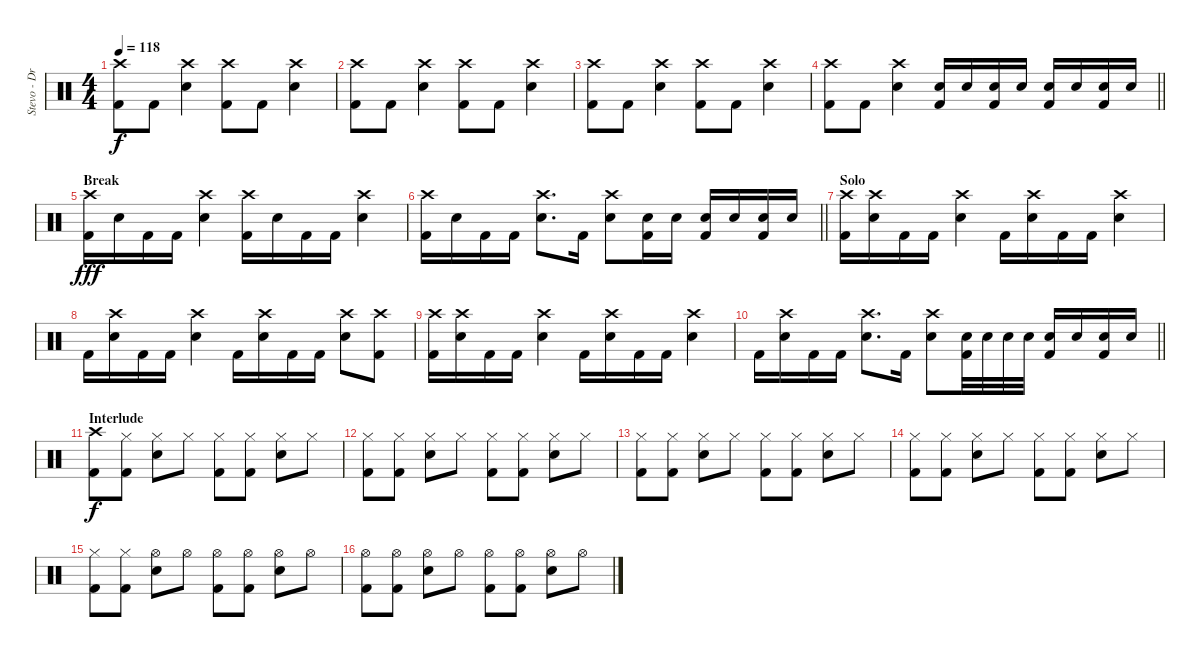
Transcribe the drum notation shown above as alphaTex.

\track ("Stevo - Drums" "Stevo - Dr") {instrument percussion}
\staff {score}
\articulation defaults
\ts (4 4)
\tempo 118
\clef neutral
\ks c
("Crash high (hit)" "Kick (hit) 2").8{dy f} "Kick (hit) 2".8 ("Crash high (hit)" "Snare (hit) 2").4 ("Crash high (hit)" "Kick (hit) 2").8 "Kick (hit) 2".8 ("Crash high (hit)" "Snare (hit) 2").4 |
("Crash high (hit)" "Kick (hit) 2").8 "Kick (hit) 2".8 ("Crash high (hit)" "Snare (hit) 2").4 ("Crash high (hit)" "Kick (hit) 2").8 "Kick (hit) 2".8 ("Crash high (hit)" "Snare (hit) 2").4 |
("Crash high (hit)" "Kick (hit) 2").8 "Kick (hit) 2".8 ("Crash high (hit)" "Snare (hit) 2").4 ("Crash high (hit)" "Kick (hit) 2").8 "Kick (hit) 2".8 ("Crash high (hit)" "Snare (hit) 2").4 |
\barLineRight lightlight
("Crash high (hit)" "Kick (hit) 2").8 "Kick (hit) 2".8 ("Crash high (hit)" "Snare (hit) 2").4 ("Snare (hit) 2" "Kick (hit) 2").16 "Snare (hit) 2".16 ("Snare (hit) 2" "Kick (hit) 2").16 "Snare (hit) 2".16 ("Snare (hit) 2" "Kick (hit) 2").16 "Snare (hit) 2".16 ("Snare (hit) 2" "Kick (hit) 2").16 "Snare (hit) 2".16 |
\section ("" "Break")
("Crash high (hit)" "Kick (hit) 2").16{dy fff} "Snare (hit) 2".16 "Kick (hit) 2".16 "Kick (hit) 2".16 ("Crash high (hit)" "Snare (hit) 2").4 ("Crash high (hit)" "Kick (hit) 2").16 "Snare (hit) 2".16 "Kick (hit) 2".16 "Kick (hit) 2".16 ("Crash high (hit)" "Snare (hit) 2").4 |
\barLineRight lightlight
("Crash high (hit)" "Kick (hit) 2").16 "Snare (hit) 2".16 "Kick (hit) 2".16 "Kick (hit) 2".16 ("Crash high (hit)" "Snare (hit) 2").8{d} "Kick (hit) 2".16 ("Crash high (hit)" "Snare (hit) 2").8 ("Snare (hit) 2" "Kick (hit) 2").16 "Snare (hit) 2".16 ("Snare (hit) 2" "Kick (hit) 2").16 "Snare (hit) 2".16 ("Snare (hit) 2" "Kick (hit) 2").16 "Snare (hit) 2".16 |
\section ("" "Solo")
("Crash high (hit)" "Kick (hit) 2").16 ("Crash high (hit)" "Snare (hit) 2").16 "Kick (hit) 2".16 "Kick (hit) 2".16 ("Crash high (hit)" "Snare (hit) 2").4 "Kick (hit) 2".16 ("Crash high (hit)" "Snare (hit) 2").16 "Kick (hit) 2".16 "Kick (hit) 2".16 ("Crash high (hit)" "Snare (hit) 2").4 |
"Kick (hit) 2".16 ("Crash high (hit)" "Snare (hit) 2").16 "Kick (hit) 2".16 "Kick (hit) 2".16 ("Crash high (hit)" "Snare (hit) 2").4 "Kick (hit) 2".16 ("Crash high (hit)" "Snare (hit) 2").16 "Kick (hit) 2".16 "Kick (hit) 2".16 ("Crash high (hit)" "Snare (hit) 2").8 ("Crash high (hit)" "Kick (hit) 2").8 |
("Crash high (hit)" "Kick (hit) 2").16 ("Crash high (hit)" "Snare (hit) 2").16 "Kick (hit) 2".16 "Kick (hit) 2".16 ("Crash high (hit)" "Snare (hit) 2").4 "Kick (hit) 2".16 ("Crash high (hit)" "Snare (hit) 2").16 "Kick (hit) 2".16 "Kick (hit) 2".16 ("Crash high (hit)" "Snare (hit) 2").4 |
\barLineRight lightlight "Kick (hit) 2".16
("Crash high (hit)" "Snare (hit) 2").16 "Kick (hit) 2".16 "Kick (hit) 2".16 ("Crash high (hit)" "Snare (hit) 2").8{d} "Kick (hit) 2".16 ("Crash high (hit)" "Snare (hit) 2").8 ("Snare (hit) 2" "Kick (hit) 2").32 "Snare (hit) 2".32 "Snare (hit) 2".32 "Snare (hit) 2".32 ("Snare (hit) 2" "Kick (hit) 2").16 "Snare (hit) 2".16 ("Snare (hit) 2" "Kick (hit) 2").16 "Snare (hit) 2".16 |
\section ("" "Interlude")
("Crash high (hit)" "Kick (hit) 2").8{dy f} ("Hi-Hat (closed)" "Kick (hit) 2").8 ("Hi-Hat (closed)" "Snare (hit) 2").8 "Hi-Hat (closed)".8 ("Hi-Hat (closed)" "Kick (hit) 2").8 ("Hi-Hat (closed)" "Kick (hit) 2").8 ("Hi-Hat (closed)" "Snare (hit) 2").8 "Hi-Hat (closed)".8 |
("Hi-Hat (closed)" "Kick (hit) 2").8 ("Hi-Hat (closed)" "Kick (hit) 2").8 ("Hi-Hat (closed)" "Snare (hit) 2").8 "Hi-Hat (closed)".8 ("Hi-Hat (closed)" "Kick (hit) 2").8 ("Hi-Hat (closed)" "Kick (hit) 2").8 ("Hi-Hat (closed)" "Snare (hit) 2").8 "Hi-Hat (closed)".8 |
("Hi-Hat (closed)" "Kick (hit) 2").8 ("Hi-Hat (closed)" "Kick (hit) 2").8 ("Hi-Hat (closed)" "Snare (hit) 2").8 "Hi-Hat (closed)".8 ("Hi-Hat (closed)" "Kick (hit) 2").8 ("Hi-Hat (closed)" "Kick (hit) 2").8 ("Hi-Hat (closed)" "Snare (hit) 2").8 "Hi-Hat (closed)".8 |
("Hi-Hat (closed)" "Kick (hit) 2").8 ("Hi-Hat (closed)" "Kick (hit) 2").8 ("Hi-Hat (closed)" "Snare (hit) 2").8 "Hi-Hat (closed)".8 ("Hi-Hat (closed)" "Kick (hit) 2").8 ("Hi-Hat (closed)" "Kick (hit) 2").8 ("Hi-Hat (closed)" "Snare (hit) 2").8 "Hi-Hat (closed)".8 |
("Hi-Hat (closed)" "Kick (hit) 2").8 ("Hi-Hat (closed)" "Kick (hit) 2").8 ("Hi-Hat (open)" "Snare (hit) 2").8 "Hi-Hat (open)".8 ("Hi-Hat (open)" "Kick (hit) 2").8 ("Hi-Hat (open)" "Kick (hit) 2").8 ("Hi-Hat (open)" "Snare (hit) 2").8 "Hi-Hat (open)".8 |
("Hi-Hat (open)" "Kick (hit) 2").8 ("Hi-Hat (open)" "Kick (hit) 2").8 ("Hi-Hat (open)" "Snare (hit) 2").8 "Hi-Hat (open)".8 ("Hi-Hat (open)" "Kick (hit) 2").8 ("Hi-Hat (open)" "Kick (hit) 2").8 ("Hi-Hat (open)" "Snare (hit) 2").8 "Hi-Hat (open)".8
